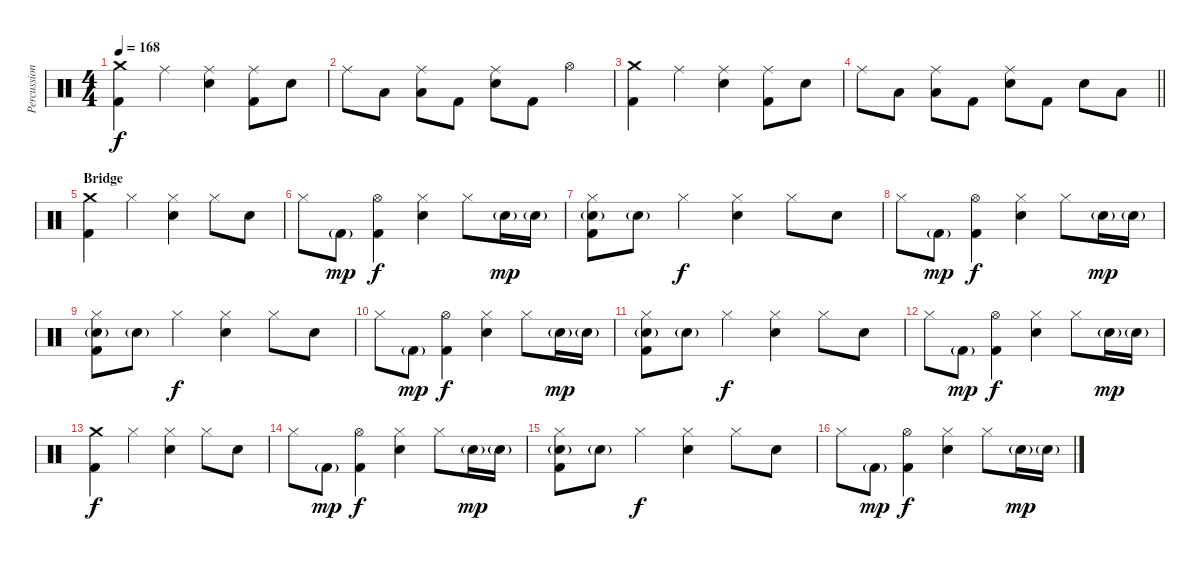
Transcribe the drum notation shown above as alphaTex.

\track ("Percussion" "Percussion") {instrument percussion}
\staff {score}
\articulation defaults
\ts (4 4)
\tempo 168
\clef neutral
\ks c
("Crash medium (hit)" "Kick (hit) 2").4{dy f} "Ride (middle)".4 ("Ride (middle)" "Electric Snare (hit)").4 ("Ride (middle)" "Kick (hit) 2").8 "Electric Snare (hit)".8 |
"Ride (middle)".8 "Low Tom (hit)".8 ("Ride (middle)" "Low Tom (hit)").8 "Kick (hit) 2".8 ("Ride (middle)" "Electric Snare (hit)").8 "Kick (hit) 2".8 "Hi-Hat (open)".4 |
("Crash medium (hit)" "Kick (hit) 2").4 "Ride (middle)".4 ("Ride (middle)" "Electric Snare (hit)").4 ("Ride (middle)" "Kick (hit) 2").8 "Electric Snare (hit)".8 |
\barLineRight lightlight "Ride (middle)".8 "Low Tom (hit)".8
("Ride (middle)" "Low Tom (hit)").8 "Kick (hit) 2".8 ("Ride (middle)" "Electric Snare (hit)").8 "Kick (hit) 2".8 "Electric Snare (hit)".8 "Low Tom (hit)".8 |
\section ("" "Bridge")
("Crash medium (hit)" "Kick (hit) 2").4 "Hi-Hat (closed)".4 ("Hi-Hat (closed)" "Electric Snare (hit)").4 "Hi-Hat (closed)".8 "Electric Snare (hit)".8 |
"Hi-Hat (closed)".8 "Kick (hit) 2"{g}.8{dy mp} ("Hi-Hat (open)" "Kick (hit) 2").4{dy f} ("Hi-Hat (closed)" "Electric Snare (hit)").4 "Hi-Hat (closed)".8 "Electric Snare (hit)"{g}.16{dy mp} "Electric Snare (hit)"{g}.16 |
("Hi-Hat (closed)" "Electric Snare (hit)"{g} "Kick (hit) 2").8 "Electric Snare (hit)"{g}.8 "Hi-Hat (closed)".4{dy f} ("Hi-Hat (closed)" "Electric Snare (hit)").4 "Hi-Hat (closed)".8 "Electric Snare (hit)".8 |
"Hi-Hat (closed)".8 "Kick (hit) 2"{g}.8{dy mp} ("Hi-Hat (open)" "Kick (hit) 2").4{dy f} ("Hi-Hat (closed)" "Electric Snare (hit)").4 "Hi-Hat (closed)".8 "Electric Snare (hit)"{g}.16{dy mp} "Electric Snare (hit)"{g}.16 |
("Hi-Hat (closed)" "Electric Snare (hit)"{g} "Kick (hit) 2").8 "Electric Snare (hit)"{g}.8 "Hi-Hat (closed)".4{dy f} ("Hi-Hat (closed)" "Electric Snare (hit)").4 "Hi-Hat (closed)".8 "Electric Snare (hit)".8 |
"Hi-Hat (closed)".8 "Kick (hit) 2"{g}.8{dy mp} ("Hi-Hat (open)" "Kick (hit) 2").4{dy f} ("Hi-Hat (closed)" "Electric Snare (hit)").4 "Hi-Hat (closed)".8 "Electric Snare (hit)"{g}.16{dy mp} "Electric Snare (hit)"{g}.16 |
("Hi-Hat (closed)" "Electric Snare (hit)"{g} "Kick (hit) 2").8 "Electric Snare (hit)"{g}.8 "Hi-Hat (closed)".4{dy f} ("Hi-Hat (closed)" "Electric Snare (hit)").4 "Hi-Hat (closed)".8 "Electric Snare (hit)".8 |
"Hi-Hat (closed)".8 "Kick (hit) 2"{g}.8{dy mp} ("Hi-Hat (open)" "Kick (hit) 2").4{dy f} ("Hi-Hat (closed)" "Electric Snare (hit)").4 "Hi-Hat (closed)".8 "Electric Snare (hit)"{g}.16{dy mp} "Electric Snare (hit)"{g}.16 |
("Crash medium (hit)" "Kick (hit) 2").4{dy f} "Hi-Hat (closed)".4 ("Hi-Hat (closed)" "Electric Snare (hit)").4 "Hi-Hat (closed)".8 "Electric Snare (hit)".8 |
"Hi-Hat (closed)".8 "Kick (hit) 2"{g}.8{dy mp} ("Hi-Hat (open)" "Kick (hit) 2").4{dy f} ("Hi-Hat (closed)" "Electric Snare (hit)").4 "Hi-Hat (closed)".8 "Electric Snare (hit)"{g}.16{dy mp} "Electric Snare (hit)"{g}.16 |
("Hi-Hat (closed)" "Electric Snare (hit)"{g} "Kick (hit) 2").8 "Electric Snare (hit)"{g}.8 "Hi-Hat (closed)".4{dy f} ("Hi-Hat (closed)" "Electric Snare (hit)").4 "Hi-Hat (closed)".8 "Electric Snare (hit)".8 |
"Hi-Hat (closed)".8 "Kick (hit) 2"{g}.8{dy mp} ("Hi-Hat (open)" "Kick (hit) 2").4{dy f} ("Hi-Hat (closed)" "Electric Snare (hit)").4 "Hi-Hat (closed)".8 "Electric Snare (hit)"{g}.16{dy mp} "Electric Snare (hit)"{g}.16
